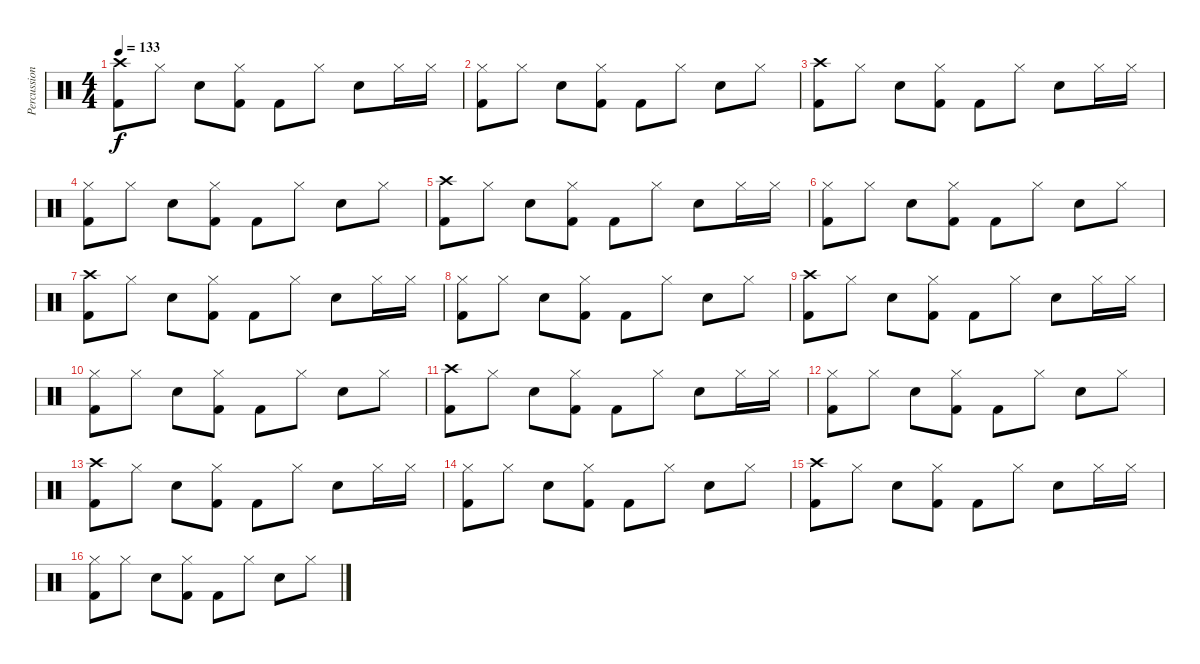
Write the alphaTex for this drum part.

\track ("Percussions" "Percussion") {instrument percussion}
\staff {score}
\articulation defaults
\ts (4 4)
\tempo 133
\clef neutral
\ks c
("Crash high (hit)" "Kick (hit) 2").8{dy f} "Hi-Hat (closed)".8 "Snare (hit) 2".8 ("Hi-Hat (closed)" "Kick (hit) 2").8 "Kick (hit) 2".8 "Hi-Hat (closed)".8 "Snare (hit) 2".8 "Hi-Hat (closed)".16 "Hi-Hat (closed)".16 |
("Hi-Hat (closed)" "Kick (hit) 2").8 "Hi-Hat (closed)".8 "Snare (hit) 2".8 ("Hi-Hat (closed)" "Kick (hit) 2").8 "Kick (hit) 2".8 "Hi-Hat (closed)".8 "Snare (hit) 2".8 "Hi-Hat (closed)".8 |
("Crash high (hit)" "Kick (hit) 2").8 "Hi-Hat (closed)".8 "Snare (hit) 2".8 ("Hi-Hat (closed)" "Kick (hit) 2").8 "Kick (hit) 2".8 "Hi-Hat (closed)".8 "Snare (hit) 2".8 "Hi-Hat (closed)".16 "Hi-Hat (closed)".16 |
("Hi-Hat (closed)" "Kick (hit) 2").8 "Hi-Hat (closed)".8 "Snare (hit) 2".8 ("Hi-Hat (closed)" "Kick (hit) 2").8 "Kick (hit) 2".8 "Hi-Hat (closed)".8 "Snare (hit) 2".8 "Hi-Hat (closed)".8 |
("Crash high (hit)" "Kick (hit) 2").8 "Hi-Hat (closed)".8 "Snare (hit) 2".8 ("Hi-Hat (closed)" "Kick (hit) 2").8 "Kick (hit) 2".8 "Hi-Hat (closed)".8 "Snare (hit) 2".8 "Hi-Hat (closed)".16 "Hi-Hat (closed)".16 |
("Hi-Hat (closed)" "Kick (hit) 2").8 "Hi-Hat (closed)".8 "Snare (hit) 2".8 ("Hi-Hat (closed)" "Kick (hit) 2").8 "Kick (hit) 2".8 "Hi-Hat (closed)".8 "Snare (hit) 2".8 "Hi-Hat (closed)".8 |
("Crash high (hit)" "Kick (hit) 2").8 "Hi-Hat (closed)".8 "Snare (hit) 2".8 ("Hi-Hat (closed)" "Kick (hit) 2").8 "Kick (hit) 2".8 "Hi-Hat (closed)".8 "Snare (hit) 2".8 "Hi-Hat (closed)".16 "Hi-Hat (closed)".16 |
("Hi-Hat (closed)" "Kick (hit) 2").8 "Hi-Hat (closed)".8 "Snare (hit) 2".8 ("Hi-Hat (closed)" "Kick (hit) 2").8 "Kick (hit) 2".8 "Hi-Hat (closed)".8 "Snare (hit) 2".8 "Hi-Hat (closed)".8 |
("Crash high (hit)" "Kick (hit) 2").8 "Hi-Hat (closed)".8 "Snare (hit) 2".8 ("Hi-Hat (closed)" "Kick (hit) 2").8 "Kick (hit) 2".8 "Hi-Hat (closed)".8 "Snare (hit) 2".8 "Hi-Hat (closed)".16 "Hi-Hat (closed)".16 |
("Hi-Hat (closed)" "Kick (hit) 2").8 "Hi-Hat (closed)".8 "Snare (hit) 2".8 ("Hi-Hat (closed)" "Kick (hit) 2").8 "Kick (hit) 2".8 "Hi-Hat (closed)".8 "Snare (hit) 2".8 "Hi-Hat (closed)".8 |
("Crash high (hit)" "Kick (hit) 2").8 "Hi-Hat (closed)".8 "Snare (hit) 2".8 ("Hi-Hat (closed)" "Kick (hit) 2").8 "Kick (hit) 2".8 "Hi-Hat (closed)".8 "Snare (hit) 2".8 "Hi-Hat (closed)".16 "Hi-Hat (closed)".16 |
("Hi-Hat (closed)" "Kick (hit) 2").8 "Hi-Hat (closed)".8 "Snare (hit) 2".8 ("Hi-Hat (closed)" "Kick (hit) 2").8 "Kick (hit) 2".8 "Hi-Hat (closed)".8 "Snare (hit) 2".8 "Hi-Hat (closed)".8 |
("Crash high (hit)" "Kick (hit) 2").8 "Hi-Hat (closed)".8 "Snare (hit) 2".8 ("Hi-Hat (closed)" "Kick (hit) 2").8 "Kick (hit) 2".8 "Hi-Hat (closed)".8 "Snare (hit) 2".8 "Hi-Hat (closed)".16 "Hi-Hat (closed)".16 |
("Hi-Hat (closed)" "Kick (hit) 2").8 "Hi-Hat (closed)".8 "Snare (hit) 2".8 ("Hi-Hat (closed)" "Kick (hit) 2").8 "Kick (hit) 2".8 "Hi-Hat (closed)".8 "Snare (hit) 2".8 "Hi-Hat (closed)".8 |
("Crash high (hit)" "Kick (hit) 2").8 "Hi-Hat (closed)".8 "Snare (hit) 2".8 ("Hi-Hat (closed)" "Kick (hit) 2").8 "Kick (hit) 2".8 "Hi-Hat (closed)".8 "Snare (hit) 2".8 "Hi-Hat (closed)".16 "Hi-Hat (closed)".16 |
("Hi-Hat (closed)" "Kick (hit) 2").8 "Hi-Hat (closed)".8 "Snare (hit) 2".8 ("Hi-Hat (closed)" "Kick (hit) 2").8 "Kick (hit) 2".8 "Hi-Hat (closed)".8 "Snare (hit) 2".8 "Hi-Hat (closed)".8
